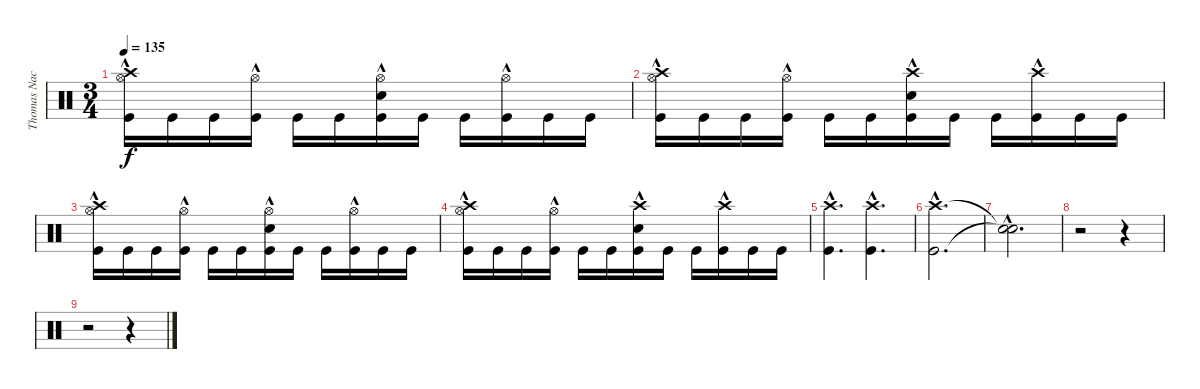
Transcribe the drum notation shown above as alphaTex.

\track ("Thomas Nack" "Thomas Nac") {instrument percussion}
\staff {score}
\articulation defaults
\ts (3 4)
\tempo 135
\clef neutral
\ks c
("Crash high (hit)" "Hi-Hat (open)"{hac} "Kick (hit)").16{dy f} "Kick (hit)".16 "Kick (hit)".16 ("Hi-Hat (open)"{hac} "Kick (hit)").16 "Kick (hit)".16 "Kick (hit)".16 ("Electric Snare (hit)" "Hi-Hat (open)"{hac} "Kick (hit)").16 "Kick (hit)".16 "Kick (hit)".16 ("Hi-Hat (open)"{hac} "Kick (hit)").16 "Kick (hit)".16 "Kick (hit)".16 |
("Crash high (hit)" "Hi-Hat (open)"{hac} "Kick (hit)").16 "Kick (hit)".16 "Kick (hit)".16 ("Hi-Hat (open)"{hac} "Kick (hit)").16 "Kick (hit)".16 "Kick (hit)".16 ("Electric Snare (hit)" "Crash high (hit)"{hac} "Kick (hit)").16 "Kick (hit)".16 "Kick (hit)".16 ("Crash high (hit)"{hac} "Kick (hit)").16 "Kick (hit)".16 "Kick (hit)".16 |
("Crash high (hit)" "Hi-Hat (open)"{hac} "Kick (hit)").16 "Kick (hit)".16 "Kick (hit)".16 ("Hi-Hat (open)"{hac} "Kick (hit)").16 "Kick (hit)".16 "Kick (hit)".16 ("Electric Snare (hit)" "Hi-Hat (open)"{hac} "Kick (hit)").16 "Kick (hit)".16 "Kick (hit)".16 ("Hi-Hat (open)"{hac} "Kick (hit)").16 "Kick (hit)".16 "Kick (hit)".16 |
("Crash high (hit)" "Hi-Hat (open)"{hac} "Kick (hit)").16 "Kick (hit)".16 "Kick (hit)".16 ("Hi-Hat (open)"{hac} "Kick (hit)").16 "Kick (hit)".16 "Kick (hit)".16 ("Electric Snare (hit)" "Crash high (hit)"{hac} "Kick (hit)").16 "Kick (hit)".16 "Kick (hit)".16 ("Crash high (hit)"{hac} "Kick (hit)").16 "Kick (hit)".16 "Kick (hit)".16 |
("Crash high (hit)"{hac} "Kick (hit)"{hac}).4{d} ("Crash high (hit)"{hac} "Kick (hit)"{hac}).4{d} |
("Crash high (hit)"{hac} "Kick (hit)"{hac}).2{d} |
("Snare (hit)"{hac t} "Snare (hit)"{hac t}).2{d} |
r.2 r.4 |
r.2 r.4
